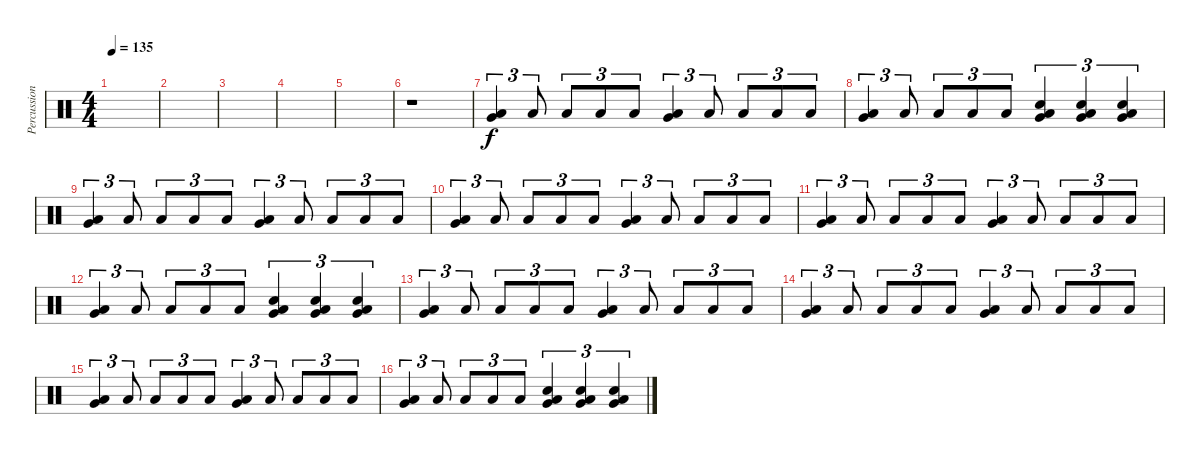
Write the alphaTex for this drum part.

\track ("Percussion" "Percussion") {instrument percussion}
\staff {score}
\articulation defaults
\ts (4 4)
\tempo 135
\clef neutral
\ks c
|
|
|
|
|
r.1{volume 0} |
("Very Low Tom (hit)" "Low Floor Tom (hit)").4{tu (3 2) volume 12} "Low Floor Tom (hit)".8{tu (3 2)} "Low Floor Tom (hit)".8{tu (3 2)} "Low Floor Tom (hit)".8{tu (3 2)} "Low Floor Tom (hit)".8{tu (3 2)} ("Very Low Tom (hit)" "Low Floor Tom (hit)").4{tu (3 2)} "Low Floor Tom (hit)".8{tu (3 2)} "Low Floor Tom (hit)".8{tu (3 2)} "Low Floor Tom (hit)".8{tu (3 2)} "Low Floor Tom (hit)".8{tu (3 2)} |
("Very Low Tom (hit)" "Low Floor Tom (hit)").4{tu (3 2)} "Low Floor Tom (hit)".8{tu (3 2)} "Low Floor Tom (hit)".8{tu (3 2)} "Low Floor Tom (hit)".8{tu (3 2)} "Low Floor Tom (hit)".8{tu (3 2)} ("Hand Clap (hit)" "Very Low Tom (hit)" "Low Floor Tom (hit)").4{tu (3 2)} ("Hand Clap (hit)" "Very Low Tom (hit)" "Low Floor Tom (hit)").4{tu (3 2)} ("Hand Clap (hit)" "Very Low Tom (hit)" "Low Floor Tom (hit)").4{tu (3 2)} |
("Very Low Tom (hit)" "Low Floor Tom (hit)").4{tu (3 2) volume 16} "Low Floor Tom (hit)".8{tu (3 2)} "Low Floor Tom (hit)".8{tu (3 2)} "Low Floor Tom (hit)".8{tu (3 2)} "Low Floor Tom (hit)".8{tu (3 2)} ("Very Low Tom (hit)" "Low Floor Tom (hit)").4{tu (3 2)} "Low Floor Tom (hit)".8{tu (3 2)} "Low Floor Tom (hit)".8{tu (3 2)} "Low Floor Tom (hit)".8{tu (3 2)} "Low Floor Tom (hit)".8{tu (3 2)} |
("Very Low Tom (hit)" "Low Floor Tom (hit)").4{tu (3 2)} "Low Floor Tom (hit)".8{tu (3 2)} "Low Floor Tom (hit)".8{tu (3 2)} "Low Floor Tom (hit)".8{tu (3 2)} "Low Floor Tom (hit)".8{tu (3 2)} ("Very Low Tom (hit)" "Low Floor Tom (hit)").4{tu (3 2)} "Low Floor Tom (hit)".8{tu (3 2)} "Low Floor Tom (hit)".8{tu (3 2)} "Low Floor Tom (hit)".8{tu (3 2)} "Low Floor Tom (hit)".8{tu (3 2)} |
("Very Low Tom (hit)" "Low Floor Tom (hit)").4{tu (3 2)} "Low Floor Tom (hit)".8{tu (3 2)} "Low Floor Tom (hit)".8{tu (3 2)} "Low Floor Tom (hit)".8{tu (3 2)} "Low Floor Tom (hit)".8{tu (3 2)} ("Very Low Tom (hit)" "Low Floor Tom (hit)").4{tu (3 2)} "Low Floor Tom (hit)".8{tu (3 2)} "Low Floor Tom (hit)".8{tu (3 2)} "Low Floor Tom (hit)".8{tu (3 2)} "Low Floor Tom (hit)".8{tu (3 2)} |
("Very Low Tom (hit)" "Low Floor Tom (hit)").4{tu (3 2)} "Low Floor Tom (hit)".8{tu (3 2)} "Low Floor Tom (hit)".8{tu (3 2)} "Low Floor Tom (hit)".8{tu (3 2)} "Low Floor Tom (hit)".8{tu (3 2)} ("Hand Clap (hit)" "Very Low Tom (hit)" "Low Floor Tom (hit)").4{tu (3 2)} ("Hand Clap (hit)" "Very Low Tom (hit)" "Low Floor Tom (hit)").4{tu (3 2)} ("Hand Clap (hit)" "Very Low Tom (hit)" "Low Floor Tom (hit)").4{tu (3 2)} |
("Very Low Tom (hit)" "Low Floor Tom (hit)").4{tu (3 2)} "Low Floor Tom (hit)".8{tu (3 2)} "Low Floor Tom (hit)".8{tu (3 2)} "Low Floor Tom (hit)".8{tu (3 2)} "Low Floor Tom (hit)".8{tu (3 2)} ("Very Low Tom (hit)" "Low Floor Tom (hit)").4{tu (3 2)} "Low Floor Tom (hit)".8{tu (3 2)} "Low Floor Tom (hit)".8{tu (3 2)} "Low Floor Tom (hit)".8{tu (3 2)} "Low Floor Tom (hit)".8{tu (3 2)} |
("Very Low Tom (hit)" "Low Floor Tom (hit)").4{tu (3 2)} "Low Floor Tom (hit)".8{tu (3 2)} "Low Floor Tom (hit)".8{tu (3 2)} "Low Floor Tom (hit)".8{tu (3 2)} "Low Floor Tom (hit)".8{tu (3 2)} ("Very Low Tom (hit)" "Low Floor Tom (hit)").4{tu (3 2)} "Low Floor Tom (hit)".8{tu (3 2)} "Low Floor Tom (hit)".8{tu (3 2)} "Low Floor Tom (hit)".8{tu (3 2)} "Low Floor Tom (hit)".8{tu (3 2)} |
("Very Low Tom (hit)" "Low Floor Tom (hit)").4{tu (3 2)} "Low Floor Tom (hit)".8{tu (3 2)} "Low Floor Tom (hit)".8{tu (3 2)} "Low Floor Tom (hit)".8{tu (3 2)} "Low Floor Tom (hit)".8{tu (3 2)} ("Very Low Tom (hit)" "Low Floor Tom (hit)").4{tu (3 2)} "Low Floor Tom (hit)".8{tu (3 2)} "Low Floor Tom (hit)".8{tu (3 2)} "Low Floor Tom (hit)".8{tu (3 2)} "Low Floor Tom (hit)".8{tu (3 2)} |
("Very Low Tom (hit)" "Low Floor Tom (hit)").4{tu (3 2)} "Low Floor Tom (hit)".8{tu (3 2)} "Low Floor Tom (hit)".8{tu (3 2)} "Low Floor Tom (hit)".8{tu (3 2)} "Low Floor Tom (hit)".8{tu (3 2)} ("Hand Clap (hit)" "Very Low Tom (hit)" "Low Floor Tom (hit)").4{tu (3 2)} ("Hand Clap (hit)" "Very Low Tom (hit)" "Low Floor Tom (hit)").4{tu (3 2)} ("Hand Clap (hit)" "Very Low Tom (hit)" "Low Floor Tom (hit)").4{tu (3 2)}
